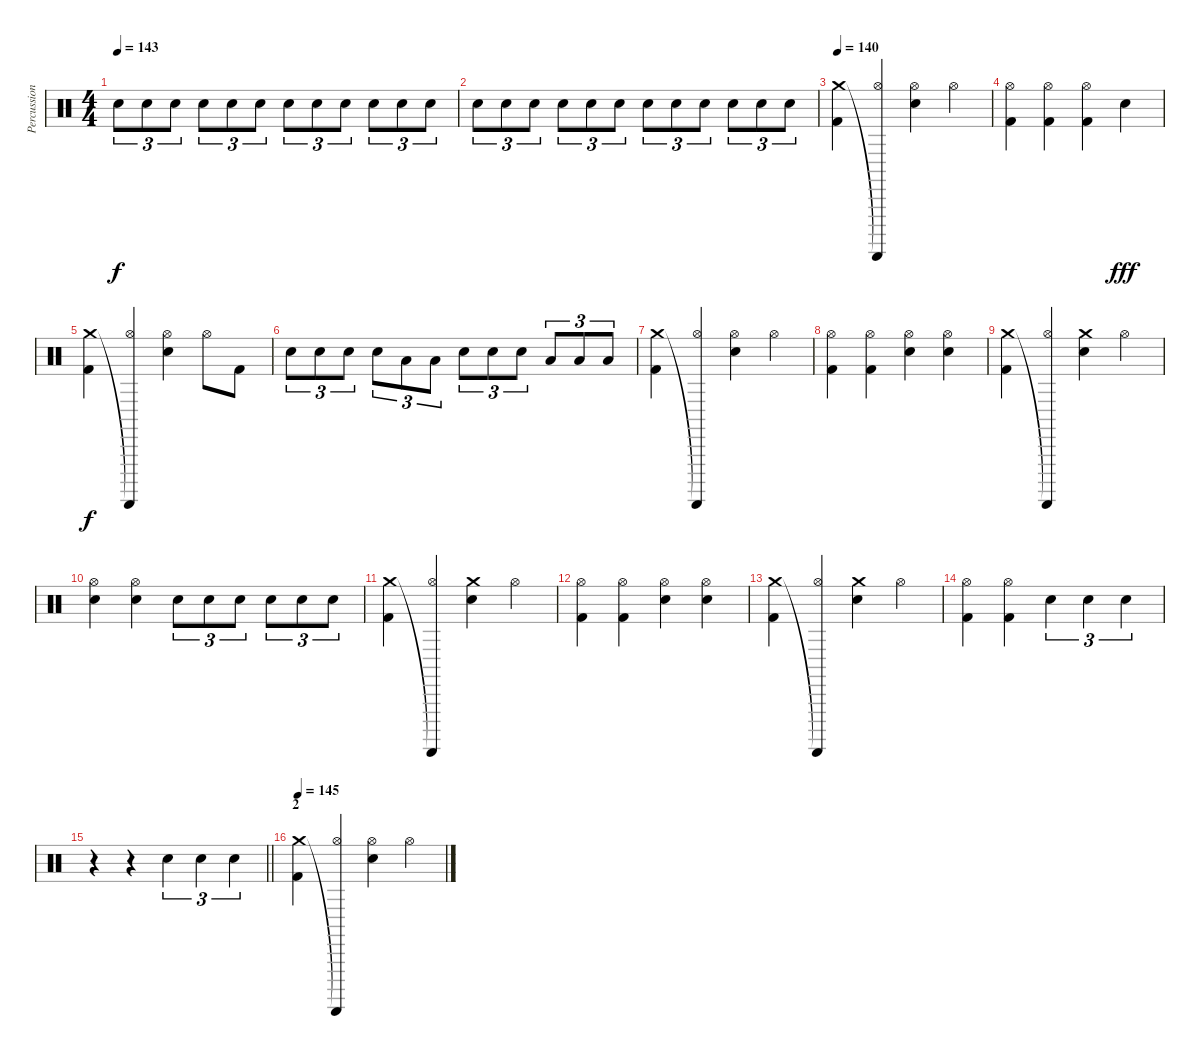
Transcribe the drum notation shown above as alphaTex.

\track ("Percussion" "Percussion") {instrument percussion}
\staff {score}
\articulation defaults
\ts (4 4)
\tempo 143
\clef neutral
\ks c "Electric Snare (hit)".8{tu (3 2) dy f} "Electric Snare (hit)".8{tu (3 2)} "Electric Snare (hit)".8{tu (3 2)} "Electric Snare (hit)".8{tu (3 2)} "Electric Snare (hit)".8{tu (3 2)} "Electric Snare (hit)".8{tu (3 2)} "Electric Snare (hit)".8{tu (3 2)} "Electric Snare (hit)".8{tu (3 2)} "Electric Snare (hit)".8{tu (3 2)} "Electric Snare (hit)".8{tu (3 2)} "Electric Snare (hit)".8{tu (3 2)} "Electric Snare (hit)".8{tu (3 2)}
|
"Electric Snare (hit)".8{tu (3 2)} "Electric Snare (hit)".8{tu (3 2)} "Electric Snare (hit)".8{tu (3 2)} "Electric Snare (hit)".8{tu (3 2)} "Electric Snare (hit)".8{tu (3 2)} "Electric Snare (hit)".8{tu (3 2)} "Electric Snare (hit)".8{tu (3 2)} "Electric Snare (hit)".8{tu (3 2)} "Electric Snare (hit)".8{tu (3 2)} "Electric Snare (hit)".8{tu (3 2)} "Electric Snare (hit)".8{tu (3 2)} "Electric Snare (hit)".8{tu (3 2)} |
\tempo 140
("Crash medium (hit)" "Kick (hit) 2").4 ("Guiro (scrap-return)"{t} "Hi-Hat (open)").4 ("Hi-Hat (open)" "Electric Snare (hit)").4 "Hi-Hat (open)".4 |
("Hi-Hat (open)" "Kick (hit) 2").4 ("Hi-Hat (open)" "Kick (hit) 2").4 ("Hi-Hat (open)" "Kick (hit) 2").4 "Electric Snare (hit)".4{dy fff} |
("Crash medium (hit)" "Kick (hit) 2").4{dy f} ("Guiro (scrap-return)"{t} "Hi-Hat (open)").4 ("Hi-Hat (open)" "Electric Snare (hit)").4 "Hi-Hat (open)".8 "Kick (hit) 2".8 |
"Electric Snare (hit)".8{tu (3 2)} "Electric Snare (hit)".8{tu (3 2)} "Electric Snare (hit)".8{tu (3 2)} "Electric Snare (hit)".8{tu (3 2)} "Low Tom (hit)".8{tu (3 2)} "Low Tom (hit)".8{tu (3 2)} "Electric Snare (hit)".8{tu (3 2)} "Electric Snare (hit)".8{tu (3 2)} "Electric Snare (hit)".8{tu (3 2)} "Low Tom (hit)".8{tu (3 2)} "Low Tom (hit)".8{tu (3 2)} "Low Tom (hit)".8{tu (3 2)} |
("Crash medium (hit)" "Kick (hit) 2").4 ("Guiro (scrap-return)"{t} "Hi-Hat (open)").4 ("Hi-Hat (open)" "Electric Snare (hit)").4 "Hi-Hat (open)".4 |
("Hi-Hat (open)" "Kick (hit) 2").4 ("Hi-Hat (open)" "Kick (hit) 2").4 ("Hi-Hat (open)" "Electric Snare (hit)").4 ("Hi-Hat (open)" "Electric Snare (hit)").4 |
("Crash medium (hit)" "Kick (hit) 2").4 ("Guiro (scrap-return)"{t} "Hi-Hat (open)").4 ("Crash medium (hit)" "Electric Snare (hit)").4 "Hi-Hat (open)".4 |
("Hi-Hat (open)" "Electric Snare (hit)").4 ("Hi-Hat (open)" "Electric Snare (hit)").4 "Electric Snare (hit)".8{tu (3 2)} "Electric Snare (hit)".8{tu (3 2)} "Electric Snare (hit)".8{tu (3 2)} "Electric Snare (hit)".8{tu (3 2)} "Electric Snare (hit)".8{tu (3 2)} "Electric Snare (hit)".8{tu (3 2)} |
("Crash medium (hit)" "Kick (hit) 2").4 ("Guiro (scrap-return)"{t} "Hi-Hat (open)").4 ("Crash medium (hit)" "Electric Snare (hit)").4 "Hi-Hat (open)".4 |
("Hi-Hat (open)" "Kick (hit) 2").4 ("Hi-Hat (open)" "Kick (hit) 2").4 ("Hi-Hat (open)" "Electric Snare (hit)").4 ("Hi-Hat (open)" "Electric Snare (hit)").4 |
("Crash medium (hit)" "Kick (hit) 2").4 ("Guiro (scrap-return)"{t} "Hi-Hat (open)").4 ("Crash medium (hit)" "Electric Snare (hit)").4 "Hi-Hat (open)".4 |
("Hi-Hat (open)" "Kick (hit) 2").4 ("Hi-Hat (open)" "Kick (hit) 2").4 "Electric Snare (hit)".4{tu (3 2)} "Electric Snare (hit)".4{tu (3 2)} "Electric Snare (hit)".4{tu (3 2)} |
\barLineRight lightlight
r.4 r.4 "Electric Snare (hit)".4{tu (3 2)} "Electric Snare (hit)".4{tu (3 2)} "Electric Snare (hit)".4{tu (3 2)} |
\section ("" "2")
\tempo 145
("Crash medium (hit)" "Kick (hit) 2").4 ("Guiro (scrap-return)"{t} "Hi-Hat (open)").4 ("Hi-Hat (open)" "Electric Snare (hit)").4 "Hi-Hat (open)".4
